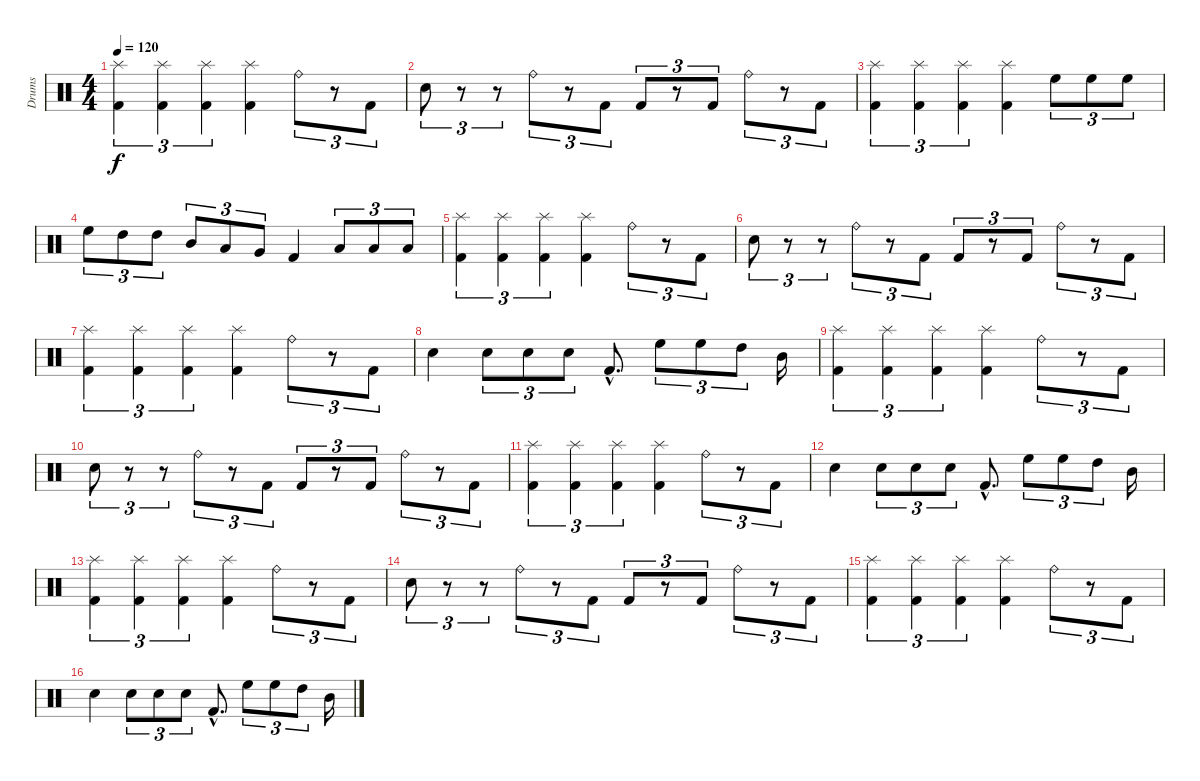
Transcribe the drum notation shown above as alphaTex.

\track ("Drums" "Drums") {instrument percussion}
\staff {score}
\articulation defaults
\ts (4 4)
\tempo 120
\clef neutral
\ks c
("Splash (hit)" "Kick (hit) 2").4{tu (3 2) dy f} ("Splash (hit)" "Kick (hit) 2").4{tu (3 2)} ("Splash (hit)" "Kick (hit) 2").4{tu (3 2)} ("Splash (hit)" "Kick (hit) 2").4 "Ride (bell)".8{tu (3 2)} r.8{tu (3 2)} "Kick (hit) 2".8{tu (3 2)} |
"Snare (hit) 2".8{tu (3 2)} r.8{tu (3 2)} r.8{tu (3 2)} "Ride (bell)".8{tu (3 2)} r.8{tu (3 2)} "Kick (hit) 2".8{tu (3 2)} "Kick (hit) 2".8{tu (3 2)} r.8{tu (3 2)} "Kick (hit) 2".8{tu (3 2)} "Ride (bell)".8{tu (3 2)} r.8{tu (3 2)} "Kick (hit) 2".8{tu (3 2)} |
("Splash (hit)" "Kick (hit) 2").4{tu (3 2)} ("Splash (hit)" "Kick (hit) 2").4{tu (3 2)} ("Splash (hit)" "Kick (hit) 2").4{tu (3 2)} ("Splash (hit)" "Kick (hit) 2").4 "High Floor Tom (hit)".8{tu (3 2)} "High Floor Tom (hit)".8{tu (3 2)} "High Floor Tom (hit)".8{tu (3 2)} |
"High Floor Tom (hit)".8{tu (3 2)} "High Tom (hit)".8{tu (3 2)} "High Tom (hit)".8{tu (3 2)} "Mid Tom (hit)".8{tu (3 2)} "Low Tom (hit)".8{tu (3 2)} "Very Low Tom (hit)".8{tu (3 2)} "Kick (hit) 2".4 "Low Floor Tom (hit)".8{tu (3 2)} "Low Floor Tom (hit)".8{tu (3 2)} "Low Floor Tom (hit)".8{tu (3 2)} |
("Splash (hit)" "Kick (hit) 2").4{tu (3 2)} ("Splash (hit)" "Kick (hit) 2").4{tu (3 2)} ("Splash (hit)" "Kick (hit) 2").4{tu (3 2)} ("Splash (hit)" "Kick (hit) 2").4 "Ride (bell)".8{tu (3 2)} r.8{tu (3 2)} "Kick (hit) 2".8{tu (3 2)} |
"Snare (hit) 2".8{tu (3 2)} r.8{tu (3 2)} r.8{tu (3 2)} "Ride (bell)".8{tu (3 2)} r.8{tu (3 2)} "Kick (hit) 2".8{tu (3 2)} "Kick (hit) 2".8{tu (3 2)} r.8{tu (3 2)} "Kick (hit) 2".8{tu (3 2)} "Ride (bell)".8{tu (3 2)} r.8{tu (3 2)} "Kick (hit) 2".8{tu (3 2)} |
("Splash (hit)" "Kick (hit) 2").4{tu (3 2)} ("Splash (hit)" "Kick (hit) 2").4{tu (3 2)} ("Splash (hit)" "Kick (hit) 2").4{tu (3 2)} ("Splash (hit)" "Kick (hit) 2").4 "Ride (bell)".8{tu (3 2)} r.8{tu (3 2)} "Kick (hit) 2".8{tu (3 2)} |
"Snare (hit) 2".4 "Snare (hit) 2".8{tu (3 2)} "Snare (hit) 2".8{tu (3 2)} "Snare (hit) 2".8{tu (3 2)} "Kick (hit) 2"{hac}.8{d} "High Floor Tom (hit)".8{tu (3 2)} "High Floor Tom (hit)".8{tu (3 2)} "High Tom (hit)".8{tu (3 2)} "Mid Tom (hit)".16 |
("Splash (hit)" "Kick (hit) 2").4{tu (3 2)} ("Splash (hit)" "Kick (hit) 2").4{tu (3 2)} ("Splash (hit)" "Kick (hit) 2").4{tu (3 2)} ("Splash (hit)" "Kick (hit) 2").4 "Ride (bell)".8{tu (3 2)} r.8{tu (3 2)} "Kick (hit) 2".8{tu (3 2)} |
"Snare (hit) 2".8{tu (3 2)} r.8{tu (3 2)} r.8{tu (3 2)} "Ride (bell)".8{tu (3 2)} r.8{tu (3 2)} "Kick (hit) 2".8{tu (3 2)} "Kick (hit) 2".8{tu (3 2)} r.8{tu (3 2)} "Kick (hit) 2".8{tu (3 2)} "Ride (bell)".8{tu (3 2)} r.8{tu (3 2)} "Kick (hit) 2".8{tu (3 2)} |
("Splash (hit)" "Kick (hit) 2").4{tu (3 2)} ("Splash (hit)" "Kick (hit) 2").4{tu (3 2)} ("Splash (hit)" "Kick (hit) 2").4{tu (3 2)} ("Splash (hit)" "Kick (hit) 2").4 "Ride (bell)".8{tu (3 2)} r.8{tu (3 2)} "Kick (hit) 2".8{tu (3 2)} |
"Snare (hit) 2".4 "Snare (hit) 2".8{tu (3 2)} "Snare (hit) 2".8{tu (3 2)} "Snare (hit) 2".8{tu (3 2)} "Kick (hit) 2"{hac}.8{d} "High Floor Tom (hit)".8{tu (3 2)} "High Floor Tom (hit)".8{tu (3 2)} "High Tom (hit)".8{tu (3 2)} "Mid Tom (hit)".16 |
("Splash (hit)" "Kick (hit) 2").4{tu (3 2)} ("Splash (hit)" "Kick (hit) 2").4{tu (3 2)} ("Splash (hit)" "Kick (hit) 2").4{tu (3 2)} ("Splash (hit)" "Kick (hit) 2").4 "Ride (bell)".8{tu (3 2)} r.8{tu (3 2)} "Kick (hit) 2".8{tu (3 2)} |
"Snare (hit) 2".8{tu (3 2)} r.8{tu (3 2)} r.8{tu (3 2)} "Ride (bell)".8{tu (3 2)} r.8{tu (3 2)} "Kick (hit) 2".8{tu (3 2)} "Kick (hit) 2".8{tu (3 2)} r.8{tu (3 2)} "Kick (hit) 2".8{tu (3 2)} "Ride (bell)".8{tu (3 2)} r.8{tu (3 2)} "Kick (hit) 2".8{tu (3 2)} |
("Splash (hit)" "Kick (hit) 2").4{tu (3 2)} ("Splash (hit)" "Kick (hit) 2").4{tu (3 2)} ("Splash (hit)" "Kick (hit) 2").4{tu (3 2)} ("Splash (hit)" "Kick (hit) 2").4 "Ride (bell)".8{tu (3 2)} r.8{tu (3 2)} "Kick (hit) 2".8{tu (3 2)} |
"Snare (hit) 2".4 "Snare (hit) 2".8{tu (3 2)} "Snare (hit) 2".8{tu (3 2)} "Snare (hit) 2".8{tu (3 2)} "Kick (hit) 2"{hac}.8{d} "High Floor Tom (hit)".8{tu (3 2)} "High Floor Tom (hit)".8{tu (3 2)} "High Tom (hit)".8{tu (3 2)} "Mid Tom (hit)".16
